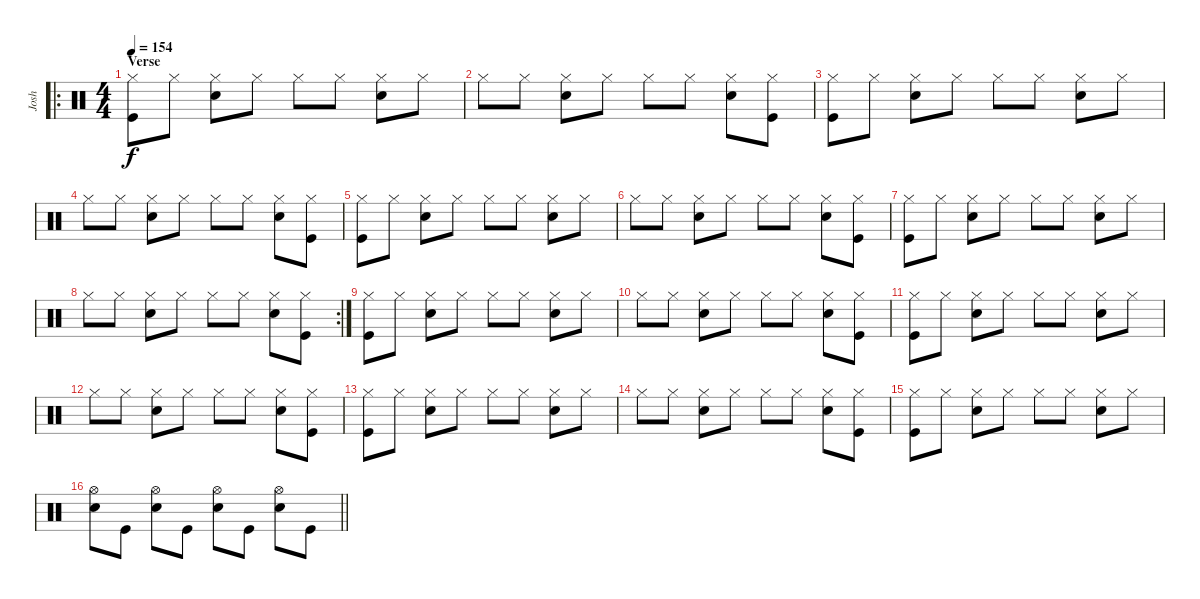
\track ("Josh" "Josh") {instrument percussion}
\staff {score}
\articulation defaults
\ro
\ts (4 4)
\section ("" "Verse")
\tempo 154
\clef neutral
\ks c
("Hi-Hat (closed)" "Kick (hit)").8{dy f} "Hi-Hat (closed)".8 ("Hi-Hat (closed)" "Snare (hit) 2").8 "Hi-Hat (closed)".8 "Hi-Hat (closed)".8 "Hi-Hat (closed)".8 ("Hi-Hat (closed)" "Snare (hit) 2").8 "Hi-Hat (closed)".8 |
"Hi-Hat (closed)".8 "Hi-Hat (closed)".8 ("Hi-Hat (closed)" "Snare (hit) 2").8 "Hi-Hat (closed)".8 "Hi-Hat (closed)".8 "Hi-Hat (closed)".8 ("Hi-Hat (closed)" "Snare (hit) 2").8 ("Hi-Hat (closed)" "Kick (hit)").8 |
("Hi-Hat (closed)" "Kick (hit)").8 "Hi-Hat (closed)".8 ("Hi-Hat (closed)" "Snare (hit) 2").8 "Hi-Hat (closed)".8 "Hi-Hat (closed)".8 "Hi-Hat (closed)".8 ("Hi-Hat (closed)" "Snare (hit) 2").8 "Hi-Hat (closed)".8 |
"Hi-Hat (closed)".8 "Hi-Hat (closed)".8 ("Hi-Hat (closed)" "Snare (hit) 2").8 "Hi-Hat (closed)".8 "Hi-Hat (closed)".8 "Hi-Hat (closed)".8 ("Hi-Hat (closed)" "Snare (hit) 2").8 ("Hi-Hat (closed)" "Kick (hit)").8 |
("Hi-Hat (closed)" "Kick (hit)").8 "Hi-Hat (closed)".8 ("Hi-Hat (closed)" "Snare (hit) 2").8 "Hi-Hat (closed)".8 "Hi-Hat (closed)".8 "Hi-Hat (closed)".8 ("Hi-Hat (closed)" "Snare (hit) 2").8 "Hi-Hat (closed)".8 |
"Hi-Hat (closed)".8 "Hi-Hat (closed)".8 ("Hi-Hat (closed)" "Snare (hit) 2").8 "Hi-Hat (closed)".8 "Hi-Hat (closed)".8 "Hi-Hat (closed)".8 ("Hi-Hat (closed)" "Snare (hit) 2").8 ("Hi-Hat (closed)" "Kick (hit)").8 |
("Hi-Hat (closed)" "Kick (hit)").8 "Hi-Hat (closed)".8 ("Hi-Hat (closed)" "Snare (hit) 2").8 "Hi-Hat (closed)".8 "Hi-Hat (closed)".8 "Hi-Hat (closed)".8 ("Hi-Hat (closed)" "Snare (hit) 2").8 "Hi-Hat (closed)".8 |
\rc 2 "Hi-Hat (closed)".8 "Hi-Hat (closed)".8
("Hi-Hat (closed)" "Snare (hit) 2").8 "Hi-Hat (closed)".8 "Hi-Hat (closed)".8 "Hi-Hat (closed)".8 ("Hi-Hat (closed)" "Snare (hit) 2").8 ("Hi-Hat (closed)" "Kick (hit)").8 |
("Hi-Hat (closed)" "Kick (hit)").8 "Hi-Hat (closed)".8 ("Hi-Hat (closed)" "Snare (hit) 2").8 "Hi-Hat (closed)".8 "Hi-Hat (closed)".8 "Hi-Hat (closed)".8 ("Hi-Hat (closed)" "Snare (hit) 2").8 "Hi-Hat (closed)".8 |
"Hi-Hat (closed)".8 "Hi-Hat (closed)".8 ("Hi-Hat (closed)" "Snare (hit) 2").8 "Hi-Hat (closed)".8 "Hi-Hat (closed)".8 "Hi-Hat (closed)".8 ("Hi-Hat (closed)" "Snare (hit) 2").8 ("Hi-Hat (closed)" "Kick (hit)").8 |
("Hi-Hat (closed)" "Kick (hit)").8 "Hi-Hat (closed)".8 ("Hi-Hat (closed)" "Snare (hit) 2").8 "Hi-Hat (closed)".8 "Hi-Hat (closed)".8 "Hi-Hat (closed)".8 ("Hi-Hat (closed)" "Snare (hit) 2").8 "Hi-Hat (closed)".8 |
"Hi-Hat (closed)".8 "Hi-Hat (closed)".8 ("Hi-Hat (closed)" "Snare (hit) 2").8 "Hi-Hat (closed)".8 "Hi-Hat (closed)".8 "Hi-Hat (closed)".8 ("Hi-Hat (closed)" "Snare (hit) 2").8 ("Hi-Hat (closed)" "Kick (hit)").8 |
("Hi-Hat (closed)" "Kick (hit)").8 "Hi-Hat (closed)".8 ("Hi-Hat (closed)" "Snare (hit) 2").8 "Hi-Hat (closed)".8 "Hi-Hat (closed)".8 "Hi-Hat (closed)".8 ("Hi-Hat (closed)" "Snare (hit) 2").8 "Hi-Hat (closed)".8 |
"Hi-Hat (closed)".8 "Hi-Hat (closed)".8 ("Hi-Hat (closed)" "Snare (hit) 2").8 "Hi-Hat (closed)".8 "Hi-Hat (closed)".8 "Hi-Hat (closed)".8 ("Hi-Hat (closed)" "Snare (hit) 2").8 ("Hi-Hat (closed)" "Kick (hit)").8 |
("Hi-Hat (closed)" "Kick (hit)").8 "Hi-Hat (closed)".8 ("Hi-Hat (closed)" "Snare (hit) 2").8 "Hi-Hat (closed)".8 "Hi-Hat (closed)".8 "Hi-Hat (closed)".8 ("Hi-Hat (closed)" "Snare (hit) 2").8 "Hi-Hat (closed)".8 |
\barLineRight lightlight
("Hi-Hat (open)" "Snare (hit) 2").8 "Kick (hit)".8 ("Hi-Hat (open)" "Snare (hit) 2").8 "Kick (hit)".8 ("Hi-Hat (open)" "Snare (hit) 2").8 "Kick (hit)".8 ("Hi-Hat (open)" "Snare (hit) 2").8 "Kick (hit)".8
